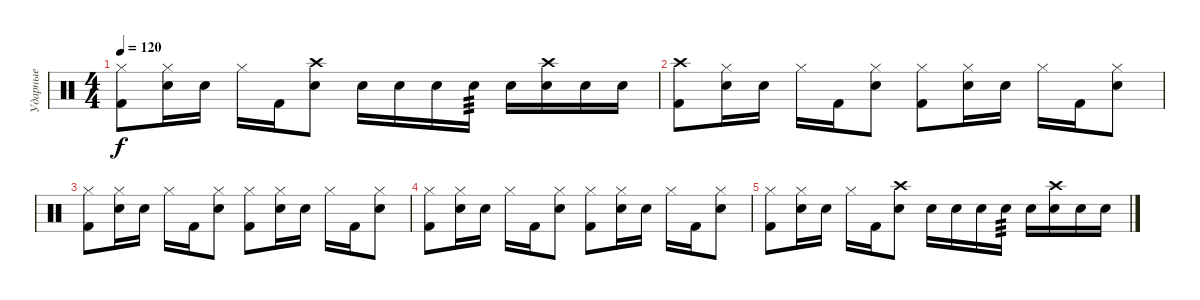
\track ("Ударные" "Ударные") {instrument percussion}
\staff {score}
\articulation defaults
\ts (4 4)
\tempo 120
\clef neutral
\ks c
("Kick (hit) 2" "Hi-Hat (closed)").8{dy f} ("Electric Snare (hit)" "Hi-Hat (closed)").16 "Electric Snare (hit)".16 "Hi-Hat (closed)".16 "Kick (hit) 2".16 ("Electric Snare (hit)" "Crash high (hit)").8 "Electric Snare (hit)".16 "Electric Snare (hit)".16 "Electric Snare (hit)".16 "Electric Snare (hit)".16{tp 3} "Electric Snare (hit)".16 ("Electric Snare (hit)" "Crash high (hit)").16 "Electric Snare (hit)".16 "Electric Snare (hit)".16 |
("Kick (hit) 2" "Crash high (hit)").8 ("Electric Snare (hit)" "Hi-Hat (closed)").16 "Electric Snare (hit)".16 "Hi-Hat (closed)".16 "Kick (hit) 2".16 ("Electric Snare (hit)" "Hi-Hat (closed)").8 ("Kick (hit) 2" "Hi-Hat (closed)").8 ("Electric Snare (hit)" "Hi-Hat (closed)").16 "Electric Snare (hit)".16 "Hi-Hat (closed)".16 "Kick (hit) 2".16 ("Electric Snare (hit)" "Hi-Hat (closed)").8 |
("Kick (hit) 2" "Hi-Hat (closed)").8 ("Electric Snare (hit)" "Hi-Hat (closed)").16 "Electric Snare (hit)".16 "Hi-Hat (closed)".16 "Kick (hit) 2".16 ("Electric Snare (hit)" "Hi-Hat (closed)").8 ("Kick (hit) 2" "Hi-Hat (closed)").8 ("Electric Snare (hit)" "Hi-Hat (closed)").16 "Electric Snare (hit)".16 "Hi-Hat (closed)".16 "Kick (hit) 2".16 ("Electric Snare (hit)" "Hi-Hat (closed)").8 |
("Kick (hit) 2" "Hi-Hat (closed)").8 ("Electric Snare (hit)" "Hi-Hat (closed)").16 "Electric Snare (hit)".16 "Hi-Hat (closed)".16 "Kick (hit) 2".16 ("Electric Snare (hit)" "Hi-Hat (closed)").8 ("Kick (hit) 2" "Hi-Hat (closed)").8 ("Electric Snare (hit)" "Hi-Hat (closed)").16 "Electric Snare (hit)".16 "Hi-Hat (closed)".16 "Kick (hit) 2".16 ("Electric Snare (hit)" "Hi-Hat (closed)").8 |
("Kick (hit) 2" "Hi-Hat (closed)").8 ("Electric Snare (hit)" "Hi-Hat (closed)").16 "Electric Snare (hit)".16 "Hi-Hat (closed)".16 "Kick (hit) 2".16 ("Electric Snare (hit)" "Crash high (hit)").8 "Electric Snare (hit)".16 "Electric Snare (hit)".16 "Electric Snare (hit)".16 "Electric Snare (hit)".16{tp 3} "Electric Snare (hit)".16 ("Electric Snare (hit)" "Crash high (hit)").16 "Electric Snare (hit)".16 "Electric Snare (hit)".16
